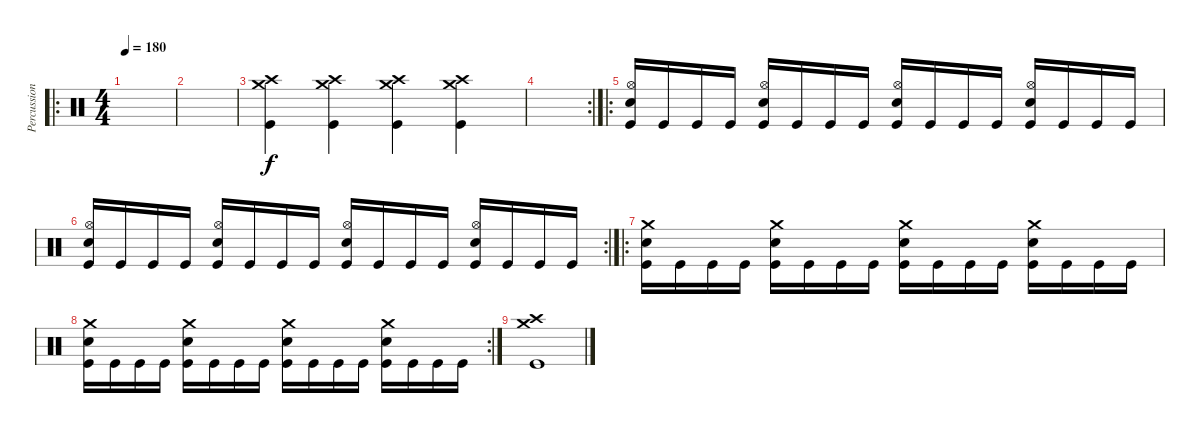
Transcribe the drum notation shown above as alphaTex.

\track ("Percussion" "Percussion") {instrument percussion}
\staff {score}
\articulation defaults
\ro
\ts (4 4)
\tempo 180
\clef neutral
\ks c
|
|
("Crash medium (hit)" "Crash high (hit)" "Kick (hit)").4 ("Crash medium (hit)" "Crash high (hit)" "Kick (hit)").4 ("Crash medium (hit)" "Crash high (hit)" "Kick (hit)").4 ("Crash medium (hit)" "Crash high (hit)" "Kick (hit)").4 |
\rc 2
|
\ro
("Hi-Hat (open)" "Snare (hit) 2" "Kick (hit)").16 "Kick (hit)".16 "Kick (hit)".16 "Kick (hit)".16 ("Hi-Hat (open)" "Snare (hit) 2" "Kick (hit)").16 "Kick (hit)".16 "Kick (hit)".16 "Kick (hit)".16 ("Hi-Hat (open)" "Snare (hit) 2" "Kick (hit)").16 "Kick (hit)".16 "Kick (hit)".16 "Kick (hit)".16 ("Hi-Hat (open)" "Snare (hit) 2" "Kick (hit)").16 "Kick (hit)".16 "Kick (hit)".16 "Kick (hit)".16 |
\rc 2
("Hi-Hat (open)" "Snare (hit) 2" "Kick (hit)").16 "Kick (hit)".16 "Kick (hit)".16 "Kick (hit)".16 ("Hi-Hat (open)" "Snare (hit) 2" "Kick (hit)").16 "Kick (hit)".16 "Kick (hit)".16 "Kick (hit)".16 ("Hi-Hat (open)" "Snare (hit) 2" "Kick (hit)").16 "Kick (hit)".16 "Kick (hit)".16 "Kick (hit)".16 ("Hi-Hat (open)" "Snare (hit) 2" "Kick (hit)").16 "Kick (hit)".16 "Kick (hit)".16 "Kick (hit)".16 |
\ro
("Crash medium (hit)" "Snare (hit) 2" "Kick (hit)").16 "Kick (hit)".16 "Kick (hit)".16 "Kick (hit)".16 ("Crash medium (hit)" "Snare (hit) 2" "Kick (hit)").16 "Kick (hit)".16 "Kick (hit)".16 "Kick (hit)".16 ("Crash medium (hit)" "Snare (hit) 2" "Kick (hit)").16 "Kick (hit)".16 "Kick (hit)".16 "Kick (hit)".16 ("Crash medium (hit)" "Snare (hit) 2" "Kick (hit)").16 "Kick (hit)".16 "Kick (hit)".16 "Kick (hit)".16 |
\rc 2
("Crash medium (hit)" "Snare (hit) 2" "Kick (hit)").16 "Kick (hit)".16 "Kick (hit)".16 "Kick (hit)".16 ("Crash medium (hit)" "Snare (hit) 2" "Kick (hit)").16 "Kick (hit)".16 "Kick (hit)".16 "Kick (hit)".16 ("Crash medium (hit)" "Snare (hit) 2" "Kick (hit)").16 "Kick (hit)".16 "Kick (hit)".16 "Kick (hit)".16 ("Crash medium (hit)" "Snare (hit) 2" "Kick (hit)").16 "Kick (hit)".16 "Kick (hit)".16 "Kick (hit)".16 |
("Crash medium (hit)" "Crash high (hit)" "Kick (hit)").1
